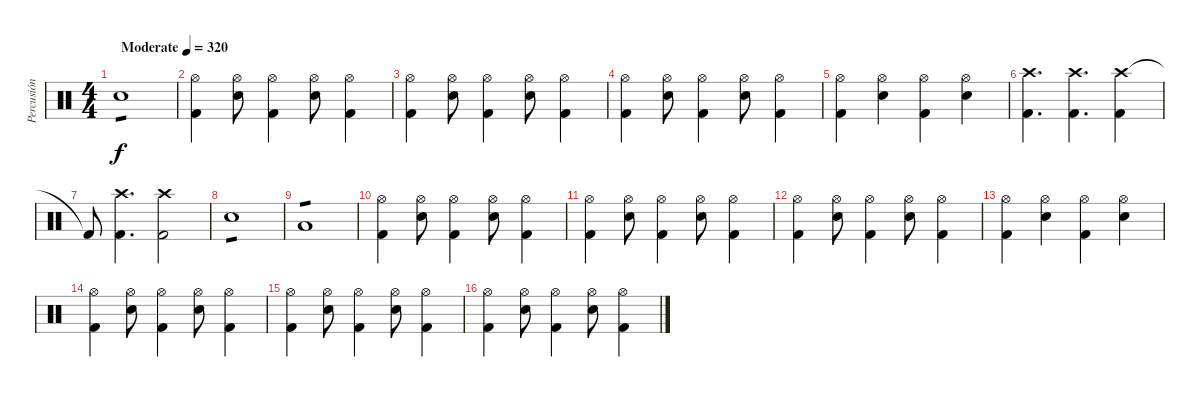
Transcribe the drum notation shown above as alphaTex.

\track ("Percusión" "Percusión") {instrument percussion}
\staff {score}
\articulation defaults
\ts (4 4)
\tempo (320 "Moderate")
\clef neutral
\ks c "Electric Snare (hit)".1{tp 1 dy f}
|
("Hi-Hat (open)" "Kick (hit) 2").4 ("Hi-Hat (open)" "Electric Snare (hit)").8 ("Hi-Hat (open)" "Kick (hit) 2").4 ("Hi-Hat (open)" "Electric Snare (hit)").8 ("Hi-Hat (open)" "Kick (hit) 2").4 |
("Hi-Hat (open)" "Kick (hit) 2").4 ("Hi-Hat (open)" "Electric Snare (hit)").8 ("Hi-Hat (open)" "Kick (hit) 2").4 ("Hi-Hat (open)" "Electric Snare (hit)").8 ("Hi-Hat (open)" "Kick (hit) 2").4 |
("Hi-Hat (open)" "Kick (hit) 2").4 ("Hi-Hat (open)" "Electric Snare (hit)").8 ("Hi-Hat (open)" "Kick (hit) 2").4 ("Hi-Hat (open)" "Electric Snare (hit)").8 ("Hi-Hat (open)" "Kick (hit) 2").4 |
("Hi-Hat (open)" "Kick (hit) 2").4 ("Hi-Hat (open)" "Electric Snare (hit)").4 ("Hi-Hat (open)" "Kick (hit) 2").4 ("Hi-Hat (open)" "Electric Snare (hit)").4 |
("Crash high (hit)" "Kick (hit) 2").4{d} ("Crash high (hit)" "Kick (hit) 2").4{d} ("Crash high (hit)" "Kick (hit) 2").4 |
"Kick (hit) 2"{t}.8 ("Crash high (hit)" "Kick (hit) 2").4{d} ("Crash high (hit)" "Kick (hit) 2").2 |
"Electric Snare (hit)".1{tp 1} |
"Low Tom (hit)".1{tp 1} |
("Hi-Hat (open)" "Kick (hit) 2").4 ("Hi-Hat (open)" "Electric Snare (hit)").8 ("Hi-Hat (open)" "Kick (hit) 2").4 ("Hi-Hat (open)" "Electric Snare (hit)").8 ("Hi-Hat (open)" "Kick (hit) 2").4 |
("Hi-Hat (open)" "Kick (hit) 2").4 ("Hi-Hat (open)" "Electric Snare (hit)").8 ("Hi-Hat (open)" "Kick (hit) 2").4 ("Hi-Hat (open)" "Electric Snare (hit)").8 ("Hi-Hat (open)" "Kick (hit) 2").4 |
("Hi-Hat (open)" "Kick (hit) 2").4 ("Hi-Hat (open)" "Electric Snare (hit)").8 ("Hi-Hat (open)" "Kick (hit) 2").4 ("Hi-Hat (open)" "Electric Snare (hit)").8 ("Hi-Hat (open)" "Kick (hit) 2").4 |
("Hi-Hat (open)" "Kick (hit) 2").4 ("Hi-Hat (open)" "Electric Snare (hit)").4 ("Hi-Hat (open)" "Kick (hit) 2").4 ("Hi-Hat (open)" "Electric Snare (hit)").4 |
("Hi-Hat (open)" "Kick (hit) 2").4 ("Hi-Hat (open)" "Electric Snare (hit)").8 ("Hi-Hat (open)" "Kick (hit) 2").4 ("Hi-Hat (open)" "Electric Snare (hit)").8 ("Hi-Hat (open)" "Kick (hit) 2").4 |
("Hi-Hat (open)" "Kick (hit) 2").4 ("Hi-Hat (open)" "Electric Snare (hit)").8 ("Hi-Hat (open)" "Kick (hit) 2").4 ("Hi-Hat (open)" "Electric Snare (hit)").8 ("Hi-Hat (open)" "Kick (hit) 2").4 |
("Hi-Hat (open)" "Kick (hit) 2").4 ("Hi-Hat (open)" "Electric Snare (hit)").8 ("Hi-Hat (open)" "Kick (hit) 2").4 ("Hi-Hat (open)" "Electric Snare (hit)").8 ("Hi-Hat (open)" "Kick (hit) 2").4
